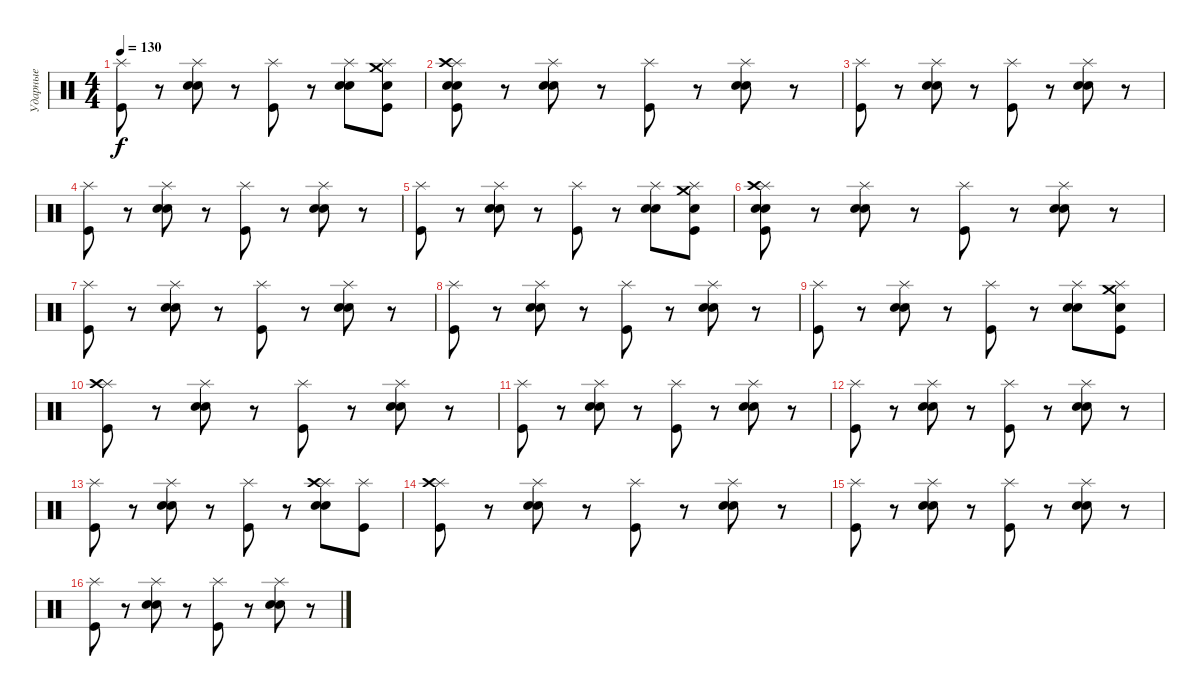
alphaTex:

\track ("Ударные" "Ударные") {instrument percussion}
\staff {score}
\articulation defaults
\ts (4 4)
\tempo 130
\clef neutral
\ks c
("Splash (hit)" "Kick (hit)").8{dy f} r.8 ("Splash (hit)" "Electric Snare (hit)" "Electric Snare (hit)").8 r.8 ("Splash (hit)" "Kick (hit)").8 r.8 ("Splash (hit)" "Electric Snare (hit)" "Electric Snare (hit)").8 ("Splash (hit)" "Crash medium (hit)" "Electric Snare (hit)" "Kick (hit)").8 |
("Splash (hit)" "Crash high (hit)" "Electric Snare (hit)" "Electric Snare (hit)" "Kick (hit)").8 r.8 ("Splash (hit)" "Electric Snare (hit)" "Electric Snare (hit)").8 r.8 ("Splash (hit)" "Kick (hit)").8 r.8 ("Splash (hit)" "Electric Snare (hit)" "Electric Snare (hit)").8 r.8 |
("Splash (hit)" "Kick (hit)").8 r.8 ("Splash (hit)" "Electric Snare (hit)" "Electric Snare (hit)").8 r.8 ("Splash (hit)" "Kick (hit)").8 r.8 ("Splash (hit)" "Electric Snare (hit)" "Electric Snare (hit)").8 r.8 |
("Splash (hit)" "Kick (hit)").8 r.8 ("Splash (hit)" "Electric Snare (hit)" "Electric Snare (hit)").8 r.8 ("Splash (hit)" "Kick (hit)").8 r.8 ("Splash (hit)" "Electric Snare (hit)" "Electric Snare (hit)").8 r.8 |
("Splash (hit)" "Kick (hit)").8 r.8 ("Splash (hit)" "Electric Snare (hit)" "Electric Snare (hit)").8 r.8 ("Splash (hit)" "Kick (hit)").8 r.8 ("Splash (hit)" "Electric Snare (hit)" "Electric Snare (hit)").8 ("Splash (hit)" "Crash medium (hit)" "Electric Snare (hit)" "Kick (hit)").8 |
("Splash (hit)" "Crash high (hit)" "Electric Snare (hit)" "Electric Snare (hit)" "Kick (hit)").8 r.8 ("Splash (hit)" "Electric Snare (hit)" "Electric Snare (hit)").8 r.8 ("Splash (hit)" "Kick (hit)").8 r.8 ("Splash (hit)" "Electric Snare (hit)" "Electric Snare (hit)").8 r.8 |
("Splash (hit)" "Kick (hit)").8 r.8 ("Splash (hit)" "Electric Snare (hit)" "Electric Snare (hit)").8 r.8 ("Splash (hit)" "Kick (hit)").8 r.8 ("Splash (hit)" "Electric Snare (hit)" "Electric Snare (hit)").8 r.8 |
("Splash (hit)" "Kick (hit)").8 r.8 ("Splash (hit)" "Electric Snare (hit)" "Electric Snare (hit)").8 r.8 ("Splash (hit)" "Kick (hit)").8 r.8 ("Splash (hit)" "Electric Snare (hit)" "Electric Snare (hit)").8 r.8 |
("Splash (hit)" "Kick (hit)").8 r.8 ("Splash (hit)" "Electric Snare (hit)" "Electric Snare (hit)").8 r.8 ("Splash (hit)" "Kick (hit)").8 r.8 ("Splash (hit)" "Electric Snare (hit)" "Electric Snare (hit)").8 ("Splash (hit)" "Crash medium (hit)" "Electric Snare (hit)" "Kick (hit)").8 |
("Splash (hit)" "Crash high (hit)" "Kick (hit)").8 r.8 ("Splash (hit)" "Electric Snare (hit)" "Electric Snare (hit)").8 r.8 ("Splash (hit)" "Kick (hit)").8 r.8 ("Splash (hit)" "Electric Snare (hit)" "Electric Snare (hit)").8 r.8 |
("Splash (hit)" "Kick (hit)").8 r.8 ("Splash (hit)" "Electric Snare (hit)" "Electric Snare (hit)").8 r.8 ("Splash (hit)" "Kick (hit)").8 r.8 ("Splash (hit)" "Electric Snare (hit)" "Electric Snare (hit)").8 r.8 |
("Splash (hit)" "Kick (hit)").8 r.8 ("Splash (hit)" "Electric Snare (hit)" "Electric Snare (hit)").8 r.8 ("Splash (hit)" "Kick (hit)").8 r.8 ("Splash (hit)" "Electric Snare (hit)" "Electric Snare (hit)").8 r.8 |
("Splash (hit)" "Kick (hit)").8 r.8 ("Splash (hit)" "Electric Snare (hit)" "Electric Snare (hit)").8 r.8 ("Splash (hit)" "Kick (hit)").8 r.8 ("Splash (hit)" "Crash high (hit)" "Electric Snare (hit)" "Electric Snare (hit)").8 ("Splash (hit)" "Kick (hit)").8 |
("Splash (hit)" "Crash high (hit)" "Kick (hit)").8 r.8 ("Splash (hit)" "Electric Snare (hit)" "Electric Snare (hit)").8 r.8 ("Splash (hit)" "Kick (hit)").8 r.8 ("Splash (hit)" "Electric Snare (hit)" "Electric Snare (hit)").8 r.8 |
("Splash (hit)" "Kick (hit)").8 r.8 ("Splash (hit)" "Electric Snare (hit)" "Electric Snare (hit)").8 r.8 ("Splash (hit)" "Kick (hit)").8 r.8 ("Splash (hit)" "Electric Snare (hit)" "Electric Snare (hit)").8 r.8 |
("Splash (hit)" "Kick (hit)").8 r.8 ("Splash (hit)" "Electric Snare (hit)" "Electric Snare (hit)").8 r.8 ("Splash (hit)" "Kick (hit)").8 r.8 ("Splash (hit)" "Electric Snare (hit)" "Electric Snare (hit)").8 r.8
